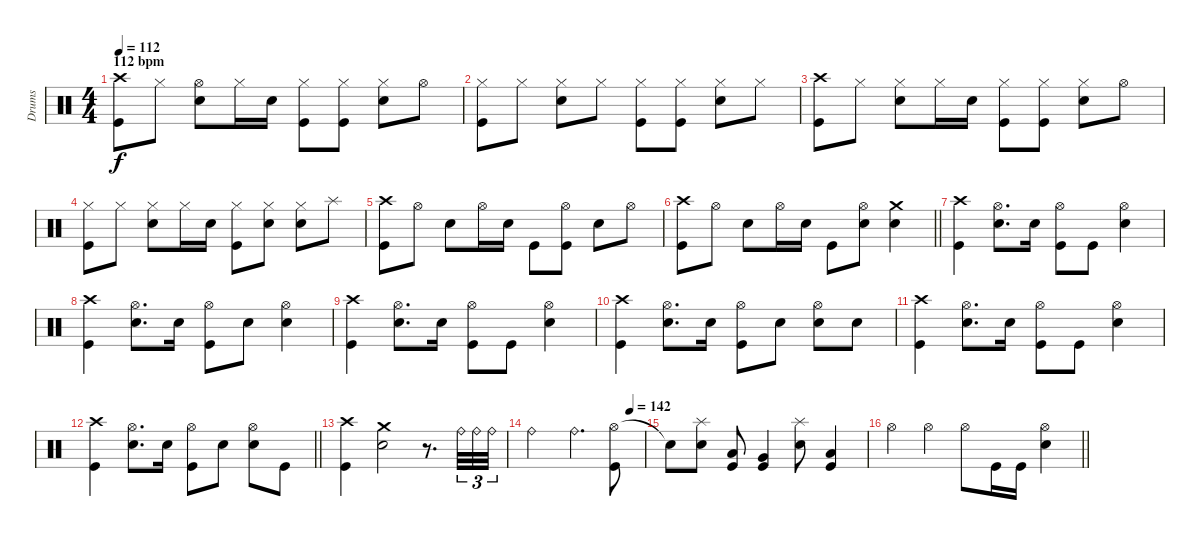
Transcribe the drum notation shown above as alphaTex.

\track ("Drums" "Drums") {instrument percussion}
\staff
\articulation defaults
\ts (4 4)
\section ("" "112 bpm")
\tempo 112
\clef neutral
\ks c
("Crash high (hit)" "Kick (hit)").8{dy f} "Hi-Hat (closed)".8 ("Hi-Hat (open)" "Electric Snare (hit)").8 "Hi-Hat (closed)".16 "Electric Snare (hit)".16 ("Hi-Hat (closed)" "Kick (hit)").8 ("Hi-Hat (closed)" "Kick (hit)").8 ("Hi-Hat (closed)" "Electric Snare (hit)").8 "Hi-Hat (open)".8 |
("Hi-Hat (closed)" "Kick (hit)").8 "Hi-Hat (closed)".8 ("Hi-Hat (closed)" "Electric Snare (hit)").8 "Hi-Hat (closed)".8 ("Hi-Hat (closed)" "Kick (hit)").8 ("Hi-Hat (closed)" "Kick (hit)").8 ("Hi-Hat (closed)" "Electric Snare (hit)").8 "Hi-Hat (closed)".8 |
("Crash high (hit)" "Kick (hit)").8 "Hi-Hat (closed)".8 ("Hi-Hat (closed)" "Electric Snare (hit)").8 "Hi-Hat (closed)".16 "Electric Snare (hit)".16 ("Hi-Hat (closed)" "Kick (hit)").8 ("Hi-Hat (closed)" "Kick (hit)").8 ("Hi-Hat (closed)" "Electric Snare (hit)").8 "Hi-Hat (open)".8 |
("Hi-Hat (closed)" "Kick (hit)").8 "Hi-Hat (closed)".8 ("Hi-Hat (closed)" "Electric Snare (hit)").8 "Hi-Hat (closed)".16 "Electric Snare (hit)".16 ("Hi-Hat (closed)" "Kick (hit)").8 ("Hi-Hat (closed)" "Electric Snare (hit)").8 ("Hi-Hat (closed)" "Electric Snare (hit)").8 "Splash (hit)".8 |
("Crash high (hit)" "Kick (hit)").8 "Hi-Hat (open)".8 "Electric Snare (hit)".8 "Hi-Hat (open)".16 "Electric Snare (hit)".16 "Kick (hit)".8 ("Hi-Hat (open)" "Kick (hit)").8 "Electric Snare (hit)".8 "Hi-Hat (open)".8 |
\barLineRight lightlight
("Crash high (hit)" "Kick (hit)").8 "Hi-Hat (open)".8 "Electric Snare (hit)".8 "Hi-Hat (open)".16 "Electric Snare (hit)".16 "Kick (hit)".8 ("Hi-Hat (open)" "Electric Snare (hit)").8 ("Crash medium (hit)" "Electric Snare (hit)").4 |
("Crash high (hit)" "Kick (hit)").4 ("Hi-Hat (open)" "Electric Snare (hit)").8{d} "Electric Snare (hit)".16 ("Hi-Hat (open)" "Kick (hit)").8 "Kick (hit)".8 ("Hi-Hat (open)" "Electric Snare (hit)").4 |
("Crash high (hit)" "Kick (hit)").4 ("Hi-Hat (open)" "Electric Snare (hit)").8{d} "Electric Snare (hit)".16 ("Hi-Hat (open)" "Kick (hit)").8 "Electric Snare (hit)".8 ("Hi-Hat (open)" "Electric Snare (hit)").4 |
("Crash high (hit)" "Kick (hit)").4 ("Hi-Hat (open)" "Electric Snare (hit)").8{d} "Electric Snare (hit)".16 ("Hi-Hat (open)" "Kick (hit)").8 "Kick (hit)".8 ("Hi-Hat (open)" "Electric Snare (hit)").4 |
("Crash high (hit)" "Kick (hit)").4 ("Hi-Hat (open)" "Electric Snare (hit)").8{d} "Electric Snare (hit)".16 ("Hi-Hat (open)" "Kick (hit)").8 "Electric Snare (hit)".8 ("Hi-Hat (open)" "Electric Snare (hit)").8 "Electric Snare (hit)".8 |
("Crash high (hit)" "Kick (hit)").4 ("Hi-Hat (open)" "Electric Snare (hit)").8{d} "Electric Snare (hit)".16 ("Hi-Hat (open)" "Kick (hit)").8 "Kick (hit)".8 ("Hi-Hat (open)" "Electric Snare (hit)").4 |
\barLineRight lightlight
("Crash high (hit)" "Kick (hit)").4 ("Hi-Hat (open)" "Electric Snare (hit)").8{d} "Electric Snare (hit)".16 ("Hi-Hat (open)" "Kick (hit)").8 "Electric Snare (hit)".8 ("Hi-Hat (open)" "Electric Snare (hit)").8 "Kick (hit)".8 |
("Crash high (hit)" "Kick (hit)").4 ("Crash medium (hit)" "Electric Snare (hit)").2 r.8{d} "Ride (bell)".32{tu (3 2)} "Ride (bell)".32{tu (3 2)} "Ride (bell)".32{tu (3 2)} |
\tempo (142 0.875)
"Ride (bell)".2 "Ride (bell)".4{d} ("Hi-Hat (open)" "Kick (hit)").8 |
"Snare (hit)"{t}.8 ("Splash (hit)" "Electric Snare (hit)").8 ("Low Tom (hit)" "Kick (hit)").8 ("Very Low Tom (hit)" "Kick (hit)").4 ("Splash (hit)" "Electric Snare (hit)").8 ("Low Floor Tom (hit)" "Kick (hit)").4 |
\barLineRight lightlight "Hi-Hat (open)".4 "Hi-Hat (open)".4 "Hi-Hat (open)".8 "Kick (hit)".16 "Kick (hit)".16
("Hi-Hat (open)" "Electric Snare (hit)").4
